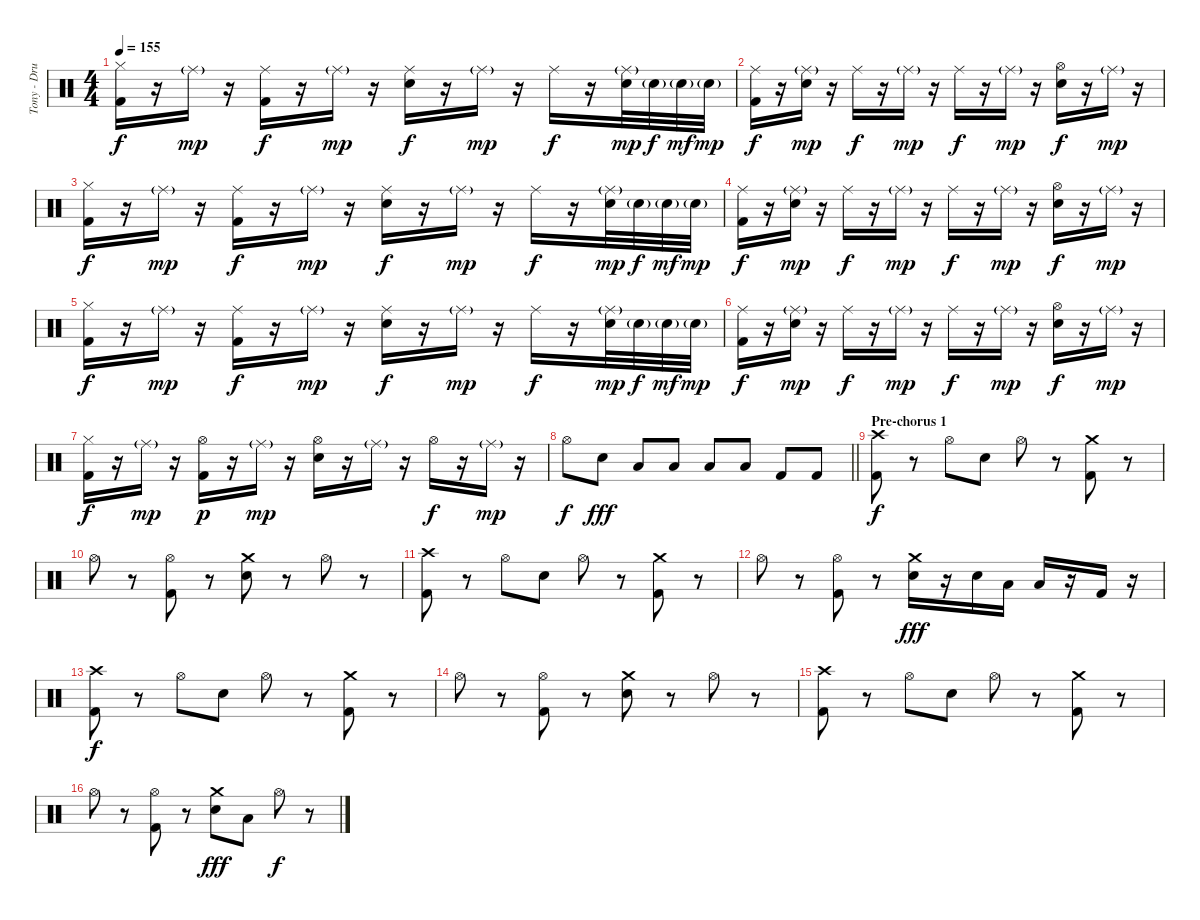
\track ("Tony - Drums" "Tony - Dru") {instrument percussion}
\staff {score}
\articulation defaults
\ts (4 4)
\tempo 155
\clef neutral
\ks c
("Hi-Hat (closed)" "Kick (hit) 2").16{dy f} r.16 "Ride (middle)"{g}.16{dy mp} r.16 ("Ride (middle)" "Kick (hit) 2").16{dy f} r.16 "Ride (middle)"{g}.16{dy mp} r.16 ("Ride (middle)" "Electric Snare (hit)").16{dy f} r.16 "Ride (middle)"{g}.16{dy mp} r.16 "Ride (middle)".16{dy f} r.16 ("Ride (middle)"{g} "Electric Snare (hit)").32{dy mp} "Electric Snare (hit)"{g}.32{dy f} "Electric Snare (hit)"{g}.32{dy mf} "Electric Snare (hit)"{g}.32{dy mp} |
("Ride (middle)" "Kick (hit) 2").16{dy f} r.16 ("Ride (middle)"{g} "Electric Snare (hit)").16{dy mp} r.16 "Ride (middle)".16{dy f} r.16 "Ride (middle)"{g}.16{dy mp} r.16 "Ride (middle)".16{dy f} r.16 "Ride (middle)"{g}.16{dy mp} r.16 ("Hi-Hat (open)" "Electric Snare (hit)").16{dy f} r.16 "Ride (middle)"{g}.16{dy mp} r.16 |
("Hi-Hat (closed)" "Kick (hit) 2").16{dy f} r.16 "Ride (middle)"{g}.16{dy mp} r.16 ("Ride (middle)" "Kick (hit) 2").16{dy f} r.16 "Ride (middle)"{g}.16{dy mp} r.16 ("Ride (middle)" "Electric Snare (hit)").16{dy f} r.16 "Ride (middle)"{g}.16{dy mp} r.16 "Ride (middle)".16{dy f} r.16 ("Ride (middle)"{g} "Electric Snare (hit)").32{dy mp} "Electric Snare (hit)"{g}.32{dy f} "Electric Snare (hit)"{g}.32{dy mf} "Electric Snare (hit)"{g}.32{dy mp} |
("Ride (middle)" "Kick (hit) 2").16{dy f} r.16 ("Ride (middle)"{g} "Electric Snare (hit)").16{dy mp} r.16 "Ride (middle)".16{dy f} r.16 "Ride (middle)"{g}.16{dy mp} r.16 "Ride (middle)".16{dy f} r.16 "Ride (middle)"{g}.16{dy mp} r.16 ("Hi-Hat (open)" "Electric Snare (hit)").16{dy f} r.16 "Ride (middle)"{g}.16{dy mp} r.16 |
("Hi-Hat (closed)" "Kick (hit) 2").16{dy f} r.16 "Ride (middle)"{g}.16{dy mp} r.16 ("Ride (middle)" "Kick (hit) 2").16{dy f} r.16 "Ride (middle)"{g}.16{dy mp} r.16 ("Ride (middle)" "Electric Snare (hit)").16{dy f} r.16 "Ride (middle)"{g}.16{dy mp} r.16 "Ride (middle)".16{dy f} r.16 ("Ride (middle)"{g} "Electric Snare (hit)").32{dy mp} "Electric Snare (hit)"{g}.32{dy f} "Electric Snare (hit)"{g}.32{dy mf} "Electric Snare (hit)"{g}.32{dy mp} |
("Ride (middle)" "Kick (hit) 2").16{dy f} r.16 ("Ride (middle)"{g} "Electric Snare (hit)").16{dy mp} r.16 "Ride (middle)".16{dy f} r.16 "Ride (middle)"{g}.16{dy mp} r.16 "Ride (middle)".16{dy f} r.16 "Ride (middle)"{g}.16{dy mp} r.16 ("Hi-Hat (open)" "Electric Snare (hit)").16{dy f} r.16 "Ride (middle)"{g}.16{dy mp} r.16 |
("Hi-Hat (closed)" "Kick (hit) 2").16{dy f} r.16 "Ride (middle)"{g}.16{dy mp} r.16 ("Hi-Hat (open)" "Kick (hit) 2").16{dy p} r.16 "Ride (middle)"{g}.16{dy mp} r.16 ("Hi-Hat (open)" "Electric Snare (hit)").16 r.16 "Ride (middle)"{g}.16 r.16 "Hi-Hat (open)".16{dy f} r.16 "Ride (middle)"{g}.16{dy mp} r.16 |
\barLineRight lightlight "Hi-Hat (open)".8{dy f} "Electric Snare (hit)".8{dy fff} "Low Tom (hit)".8 "Low Tom (hit)".8 "Low Floor Tom (hit)".8 "Low Floor Tom (hit)".8 "Kick (hit) 2".8 "Kick (hit) 2".8
|
\section ("" "Pre-chorus 1")
("Crash high (hit)" "Kick (hit) 2").8{dy f} r.8 "Hi-Hat (open)".8 "Electric Snare (hit)".8 "Hi-Hat (open)".8 r.8 ("Crash medium (hit)" "Kick (hit) 2").8 r.8 |
"Hi-Hat (open)".8 r.8 ("Hi-Hat (open)" "Kick (hit) 2").8 r.8 ("Crash medium (hit)" "Electric Snare (hit)").8 r.8 "Hi-Hat (open)".8 r.8 |
("Crash high (hit)" "Kick (hit) 2").8 r.8 "Hi-Hat (open)".8 "Electric Snare (hit)".8 "Hi-Hat (open)".8 r.8 ("Crash medium (hit)" "Kick (hit) 2").8 r.8 |
"Hi-Hat (open)".8 r.8 ("Hi-Hat (open)" "Kick (hit) 2").8 r.8 ("Crash medium (hit)" "Electric Snare (hit)").16{dy fff} r.16 "Electric Snare (hit)".16 "Low Tom (hit)".16 "Low Floor Tom (hit)".16 r.16 "Kick (hit) 2".16 r.16 |
("Crash high (hit)" "Kick (hit) 2").8{dy f} r.8 "Hi-Hat (open)".8 "Electric Snare (hit)".8 "Hi-Hat (open)".8 r.8 ("Crash medium (hit)" "Kick (hit) 2").8 r.8 |
"Hi-Hat (open)".8 r.8 ("Hi-Hat (open)" "Kick (hit) 2").8 r.8 ("Crash medium (hit)" "Electric Snare (hit)").8 r.8 "Hi-Hat (open)".8 r.8 |
("Crash high (hit)" "Kick (hit) 2").8 r.8 "Hi-Hat (open)".8 "Electric Snare (hit)".8 "Hi-Hat (open)".8 r.8 ("Crash medium (hit)" "Kick (hit) 2").8 r.8 |
"Hi-Hat (open)".8 r.8 ("Hi-Hat (open)" "Kick (hit) 2").8 r.8 ("Crash medium (hit)" "Electric Snare (hit)").8{dy fff} "Low Floor Tom (hit)".8 "Hi-Hat (open)".8{dy f} r.8
